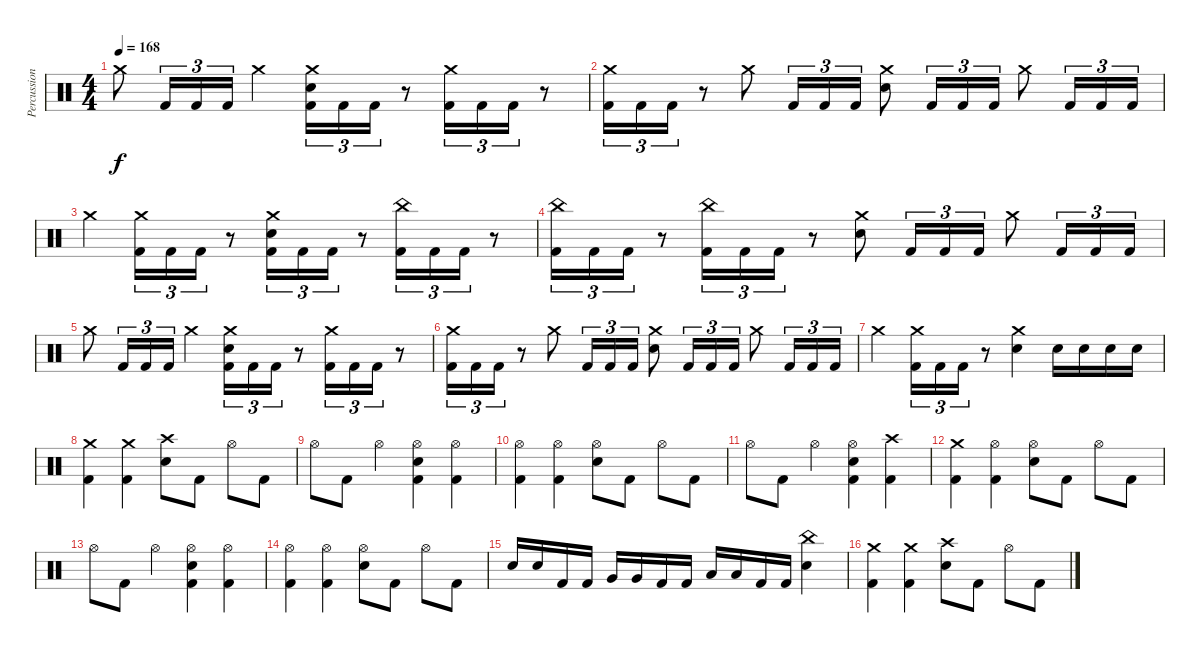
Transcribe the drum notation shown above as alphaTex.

\track ("Percussion" "Percussion") {instrument percussion}
\staff {score}
\articulation defaults
\ts (4 4)
\tempo 168
\clef neutral
\ks c "Crash medium (hit)".8{dy f} "Kick (hit) 2".16{tu (3 2)} "Kick (hit) 2".16{tu (3 2)} "Kick (hit) 2".16{tu (3 2)} "Crash medium (hit)".4
("Crash medium (hit)" "Electric Snare (hit)" "Kick (hit) 2").16{tu (3 2)} "Kick (hit) 2".16{tu (3 2)} "Kick (hit) 2".16{tu (3 2)} r.8 ("Crash medium (hit)" "Kick (hit) 2").16{tu (3 2)} "Kick (hit) 2".16{tu (3 2)} "Kick (hit) 2".16{tu (3 2)} r.8 |
("Crash medium (hit)" "Kick (hit) 2").16{tu (3 2)} "Kick (hit) 2".16{tu (3 2)} "Kick (hit) 2".16{tu (3 2)} r.8 "Crash medium (hit)".8 "Kick (hit) 2".16{tu (3 2)} "Kick (hit) 2".16{tu (3 2)} "Kick (hit) 2".16{tu (3 2)} ("Crash medium (hit)" "Electric Snare (hit)").8 "Kick (hit) 2".16{tu (3 2)} "Kick (hit) 2".16{tu (3 2)} "Kick (hit) 2".16{tu (3 2)} "Crash medium (hit)".8 "Kick (hit) 2".16{tu (3 2)} "Kick (hit) 2".16{tu (3 2)} "Kick (hit) 2".16{tu (3 2)} |
"Crash medium (hit)".4 ("Crash medium (hit)" "Kick (hit) 2").16{tu (3 2)} "Kick (hit) 2".16{tu (3 2)} "Kick (hit) 2".16{tu (3 2)} r.8 ("Crash medium (hit)" "Electric Snare (hit)" "Kick (hit) 2").16{tu (3 2)} "Kick (hit) 2".16{tu (3 2)} "Kick (hit) 2".16{tu (3 2)} r.8 ("China (hit)" "Kick (hit) 2").16{tu (3 2)} "Kick (hit) 2".16{tu (3 2)} "Kick (hit) 2".16{tu (3 2)} r.8 |
("China (hit)" "Kick (hit) 2").16{tu (3 2)} "Kick (hit) 2".16{tu (3 2)} "Kick (hit) 2".16{tu (3 2)} r.8 ("China (hit)" "Kick (hit) 2").16{tu (3 2)} "Kick (hit) 2".16{tu (3 2)} "Kick (hit) 2".16{tu (3 2)} r.8 ("Crash medium (hit)" "Electric Snare (hit)").8 "Kick (hit) 2".16{tu (3 2)} "Kick (hit) 2".16{tu (3 2)} "Kick (hit) 2".16{tu (3 2)} "Crash medium (hit)".8 "Kick (hit) 2".16{tu (3 2)} "Kick (hit) 2".16{tu (3 2)} "Kick (hit) 2".16{tu (3 2)} |
"Crash medium (hit)".8 "Kick (hit) 2".16{tu (3 2)} "Kick (hit) 2".16{tu (3 2)} "Kick (hit) 2".16{tu (3 2)} "Crash medium (hit)".4 ("Crash medium (hit)" "Electric Snare (hit)" "Kick (hit) 2").16{tu (3 2)} "Kick (hit) 2".16{tu (3 2)} "Kick (hit) 2".16{tu (3 2)} r.8 ("Crash medium (hit)" "Kick (hit) 2").16{tu (3 2)} "Kick (hit) 2".16{tu (3 2)} "Kick (hit) 2".16{tu (3 2)} r.8 |
("Crash medium (hit)" "Kick (hit) 2").16{tu (3 2)} "Kick (hit) 2".16{tu (3 2)} "Kick (hit) 2".16{tu (3 2)} r.8 "Crash medium (hit)".8 "Kick (hit) 2".16{tu (3 2)} "Kick (hit) 2".16{tu (3 2)} "Kick (hit) 2".16{tu (3 2)} ("Crash medium (hit)" "Electric Snare (hit)").8 "Kick (hit) 2".16{tu (3 2)} "Kick (hit) 2".16{tu (3 2)} "Kick (hit) 2".16{tu (3 2)} "Crash medium (hit)".8 "Kick (hit) 2".16{tu (3 2)} "Kick (hit) 2".16{tu (3 2)} "Kick (hit) 2".16{tu (3 2)} |
"Crash medium (hit)".4 ("Crash medium (hit)" "Kick (hit) 2").16{tu (3 2)} "Kick (hit) 2".16{tu (3 2)} "Kick (hit) 2".16{tu (3 2)} r.8 ("Crash medium (hit)" "Electric Snare (hit)").4 "Electric Snare (hit)".16 "Electric Snare (hit)".16 "Electric Snare (hit)".16 "Electric Snare (hit)".16 |
("Crash medium (hit)" "Kick (hit) 2").4 ("Crash medium (hit)" "Kick (hit) 2").4 ("Crash high (hit)" "Electric Snare (hit)").8 "Kick (hit) 2".8 "Hi-Hat (open)".8 "Kick (hit) 2".8 |
"Hi-Hat (open)".8 "Kick (hit) 2".8 "Hi-Hat (open)".4 ("Hi-Hat (open)" "Electric Snare (hit)" "Kick (hit) 2").4 ("Hi-Hat (open)" "Kick (hit) 2").4 |
("Hi-Hat (open)" "Kick (hit) 2").4 ("Hi-Hat (open)" "Kick (hit) 2").4 ("Hi-Hat (open)" "Electric Snare (hit)").8 "Kick (hit) 2".8 "Hi-Hat (open)".8 "Kick (hit) 2".8 |
"Hi-Hat (open)".8 "Kick (hit) 2".8 "Hi-Hat (open)".4 ("Hi-Hat (open)" "Electric Snare (hit)" "Kick (hit) 2").4 ("Crash high (hit)" "Kick (hit) 2").4 |
("Crash medium (hit)" "Kick (hit) 2").4 ("Hi-Hat (open)" "Kick (hit) 2").4 ("Hi-Hat (open)" "Electric Snare (hit)").8 "Kick (hit) 2".8 "Hi-Hat (open)".8 "Kick (hit) 2".8 |
"Hi-Hat (open)".8 "Kick (hit) 2".8 "Hi-Hat (open)".4 ("Hi-Hat (open)" "Electric Snare (hit)" "Kick (hit) 2").4 ("Hi-Hat (open)" "Kick (hit) 2").4 |
("Hi-Hat (open)" "Kick (hit) 2").4 ("Hi-Hat (open)" "Kick (hit) 2").4 ("Hi-Hat (open)" "Electric Snare (hit)").8 "Kick (hit) 2".8 "Hi-Hat (open)".8 "Kick (hit) 2".8 |
"Electric Snare (hit)".16 "Electric Snare (hit)".16 "Kick (hit) 2".16 "Kick (hit) 2".16 "Very Low Tom (hit)".16 "Very Low Tom (hit)".16 "Kick (hit) 2".16 "Kick (hit) 2".16 "Low Floor Tom (hit)".16 "Low Floor Tom (hit)".16 "Kick (hit) 2".16 "Kick (hit) 2".16 ("China (hit)" "Electric Snare (hit)").4 |
("Crash medium (hit)" "Kick (hit) 2").4 ("Crash medium (hit)" "Kick (hit) 2").4 ("Crash high (hit)" "Electric Snare (hit)").8 "Kick (hit) 2".8 "Hi-Hat (open)".8 "Kick (hit) 2".8
